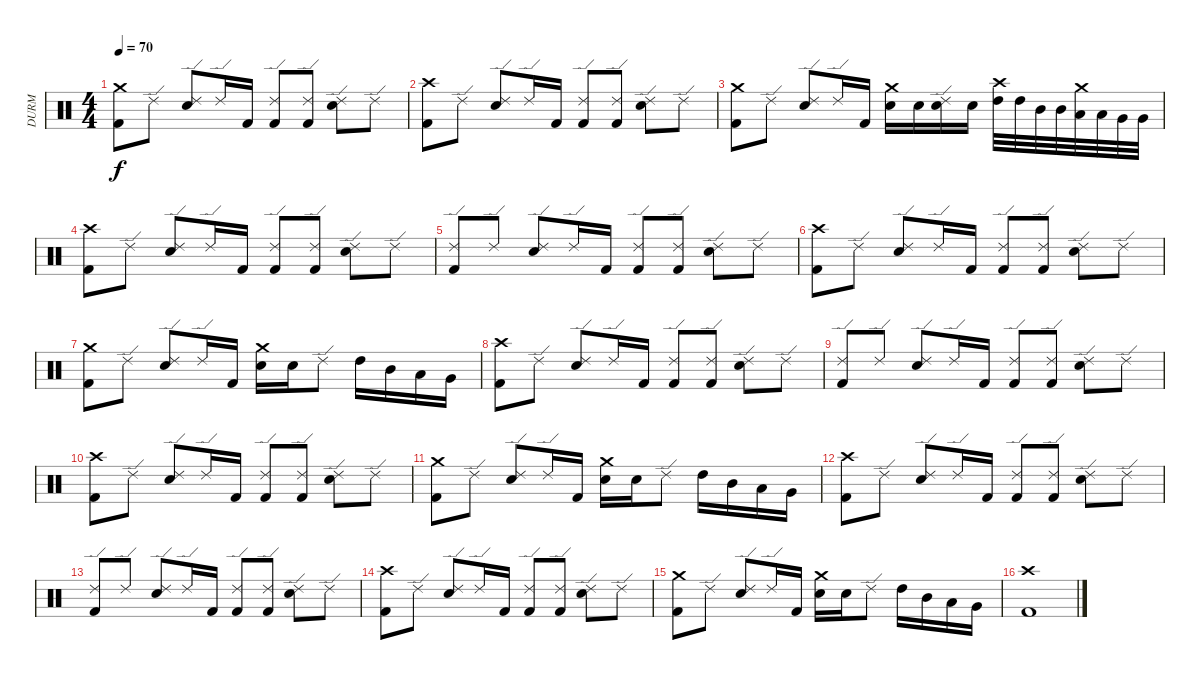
\track ("DURM" "DURM") {instrument percussion}
\staff {score}
\articulation defaults
\ts (4 4)
\tempo 70
\clef neutral
\ks c
("Crash medium (hit)" "Kick (hit) 2").8{dy f} "Ride (edge) 2".8 ("Ride (edge) 2" "Snare (hit) 2").8 "Ride (edge) 2".16 "Kick (hit) 2".16 ("Ride (edge) 2" "Kick (hit) 2").8 ("Ride (edge) 2" "Kick (hit) 2").8 ("Ride (edge) 2" "Snare (hit) 2").8 "Ride (edge) 2".8 |
("Crash high (hit)" "Kick (hit) 2").8 "Ride (edge) 2".8 ("Ride (edge) 2" "Snare (hit) 2").8 "Ride (edge) 2".16 "Kick (hit) 2".16 ("Ride (edge) 2" "Kick (hit) 2").8 ("Ride (edge) 2" "Kick (hit) 2").8 ("Ride (edge) 2" "Snare (hit) 2").8 "Ride (edge) 2".8 |
("Crash medium (hit)" "Kick (hit) 2").8 "Ride (edge) 2".8 ("Ride (edge) 2" "Snare (hit) 2").8 "Ride (edge) 2".16 "Kick (hit) 2".16 ("Crash medium (hit)" "Snare (hit) 2").16 "Snare (hit) 2".16 ("Ride (edge) 2" "Snare (hit) 2").16 "Snare (hit) 2".16 ("Crash high (hit)" "High Tom (hit)").32 "High Tom (hit)".32 "Mid Tom (hit)".32 "Mid Tom (hit)".32 ("Crash medium (hit)" "Low Tom (hit)").32 "Low Tom (hit)".32 "Very Low Tom (hit)".32 "Very Low Tom (hit)".32 |
("Crash high (hit)" "Kick (hit) 2").8 "Ride (edge) 2".8 ("Ride (edge) 2" "Snare (hit) 2").8 "Ride (edge) 2".16 "Kick (hit) 2".16 ("Ride (edge) 2" "Kick (hit) 2").8 ("Ride (edge) 2" "Kick (hit) 2").8 ("Ride (edge) 2" "Snare (hit) 2").8 "Ride (edge) 2".8 |
("Ride (edge) 2" "Kick (hit) 2").8 "Ride (edge) 2".8 ("Ride (edge) 2" "Snare (hit) 2").8 "Ride (edge) 2".16 "Kick (hit) 2".16 ("Ride (edge) 2" "Kick (hit) 2").8 ("Ride (edge) 2" "Kick (hit) 2").8 ("Ride (edge) 2" "Snare (hit) 2").8 "Ride (edge) 2".8 |
("Crash high (hit)" "Kick (hit) 2").8 "Ride (edge) 2".8 ("Ride (edge) 2" "Snare (hit) 2").8 "Ride (edge) 2".16 "Kick (hit) 2".16 ("Ride (edge) 2" "Kick (hit) 2").8 ("Ride (edge) 2" "Kick (hit) 2").8 ("Ride (edge) 2" "Snare (hit) 2").8 "Ride (edge) 2".8 |
("Crash medium (hit)" "Kick (hit) 2").8 "Ride (edge) 2".8 ("Ride (edge) 2" "Snare (hit) 2").8 "Ride (edge) 2".16 "Kick (hit) 2".16 ("Crash medium (hit)" "Snare (hit) 2").16 "Snare (hit) 2".16 "Ride (edge) 2".8 "High Tom (hit)".16 "Mid Tom (hit)".16 "Low Tom (hit)".16 "Very Low Tom (hit)".16 |
("Crash high (hit)" "Kick (hit) 2").8 "Ride (edge) 2".8 ("Ride (edge) 2" "Snare (hit) 2").8 "Ride (edge) 2".16 "Kick (hit) 2".16 ("Ride (edge) 2" "Kick (hit) 2").8 ("Ride (edge) 2" "Kick (hit) 2").8 ("Ride (edge) 2" "Snare (hit) 2").8 "Ride (edge) 2".8 |
("Ride (edge) 2" "Kick (hit) 2").8 "Ride (edge) 2".8 ("Ride (edge) 2" "Snare (hit) 2").8 "Ride (edge) 2".16 "Kick (hit) 2".16 ("Ride (edge) 2" "Kick (hit) 2").8 ("Ride (edge) 2" "Kick (hit) 2").8 ("Ride (edge) 2" "Snare (hit) 2").8 "Ride (edge) 2".8 |
("Crash high (hit)" "Kick (hit) 2").8 "Ride (edge) 2".8 ("Ride (edge) 2" "Snare (hit) 2").8 "Ride (edge) 2".16 "Kick (hit) 2".16 ("Ride (edge) 2" "Kick (hit) 2").8 ("Ride (edge) 2" "Kick (hit) 2").8 ("Ride (edge) 2" "Snare (hit) 2").8 "Ride (edge) 2".8 |
("Crash medium (hit)" "Kick (hit) 2").8 "Ride (edge) 2".8 ("Ride (edge) 2" "Snare (hit) 2").8 "Ride (edge) 2".16 "Kick (hit) 2".16 ("Crash medium (hit)" "Snare (hit) 2").16 "Snare (hit) 2".16 "Ride (edge) 2".8 "High Tom (hit)".16 "Mid Tom (hit)".16 "Low Tom (hit)".16 "Very Low Tom (hit)".16 |
("Crash high (hit)" "Kick (hit) 2").8 "Ride (edge) 2".8 ("Ride (edge) 2" "Snare (hit) 2").8 "Ride (edge) 2".16 "Kick (hit) 2".16 ("Ride (edge) 2" "Kick (hit) 2").8 ("Ride (edge) 2" "Kick (hit) 2").8 ("Ride (edge) 2" "Snare (hit) 2").8 "Ride (edge) 2".8 |
("Ride (edge) 2" "Kick (hit) 2").8 "Ride (edge) 2".8 ("Ride (edge) 2" "Snare (hit) 2").8 "Ride (edge) 2".16 "Kick (hit) 2".16 ("Ride (edge) 2" "Kick (hit) 2").8 ("Ride (edge) 2" "Kick (hit) 2").8 ("Ride (edge) 2" "Snare (hit) 2").8 "Ride (edge) 2".8 |
("Crash high (hit)" "Kick (hit) 2").8 "Ride (edge) 2".8 ("Ride (edge) 2" "Snare (hit) 2").8 "Ride (edge) 2".16 "Kick (hit) 2".16 ("Ride (edge) 2" "Kick (hit) 2").8 ("Ride (edge) 2" "Kick (hit) 2").8 ("Ride (edge) 2" "Snare (hit) 2").8 "Ride (edge) 2".8 |
("Crash medium (hit)" "Kick (hit) 2").8 "Ride (edge) 2".8 ("Ride (edge) 2" "Snare (hit) 2").8 "Ride (edge) 2".16 "Kick (hit) 2".16 ("Crash medium (hit)" "Snare (hit) 2").16 "Snare (hit) 2".16 "Ride (edge) 2".8 "High Tom (hit)".16 "Mid Tom (hit)".16 "Low Tom (hit)".16 "Very Low Tom (hit)".16 |
("Crash high (hit)" "Kick (hit) 2").1
